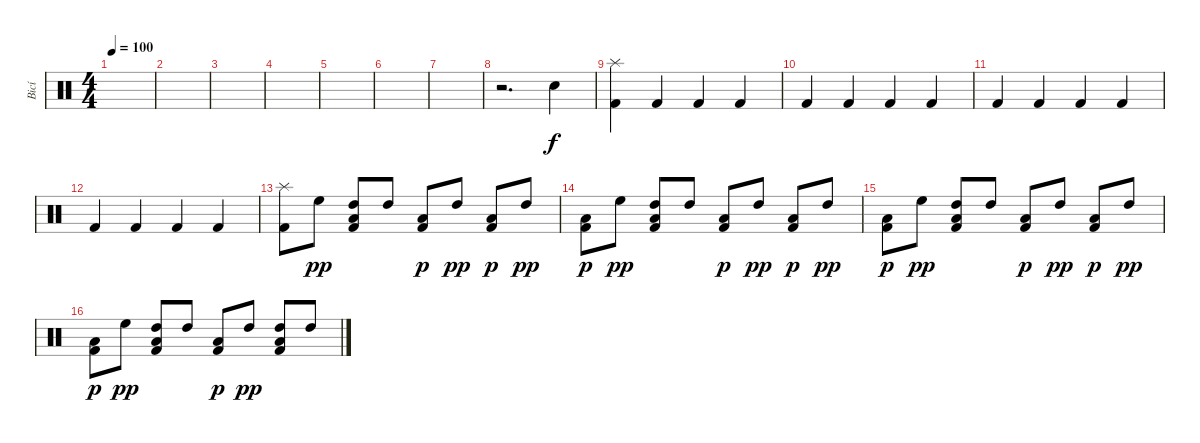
\track ("Bicí" "Bicí") {instrument percussion}
\staff {score}
\articulation defaults
\ts (4 4)
\tempo 100
\clef neutral
\ks c
|
|
|
|
|
|
|
r.2{d} "Snare (hit) 2".4 |
("Kick (hit) 2" "Splash (hit)").4 "Kick (hit) 2".4 "Kick (hit) 2".4 "Kick (hit) 2".4 |
"Kick (hit) 2".4 "Kick (hit) 2".4 "Kick (hit) 2".4 "Kick (hit) 2".4 |
"Kick (hit) 2".4 "Kick (hit) 2".4 "Kick (hit) 2".4 "Kick (hit) 2".4 |
"Kick (hit) 2".4 "Kick (hit) 2".4 "Kick (hit) 2".4 "Kick (hit) 2".4 |
("Kick (hit) 2" "Splash (hit)").8 "High Floor Tom (hit)".8{dy pp} ("Kick (hit) 2" "Low Floor Tom (hit)" "High Tom (hit)").8 "High Tom (hit)".8 ("Kick (hit) 2" "Low Floor Tom (hit)").8{dy p} "High Tom (hit)".8{dy pp} ("Kick (hit) 2" "Low Floor Tom (hit)").8{dy p} "High Tom (hit)".8{dy pp} |
("Kick (hit) 2" "Low Floor Tom (hit)").8{dy p} "High Floor Tom (hit)".8{dy pp} ("Kick (hit) 2" "Low Floor Tom (hit)" "High Tom (hit)").8 "High Tom (hit)".8 ("Kick (hit) 2" "Low Floor Tom (hit)").8{dy p} "High Tom (hit)".8{dy pp} ("Kick (hit) 2" "Low Floor Tom (hit)").8{dy p} "High Tom (hit)".8{dy pp} |
("Kick (hit) 2" "Low Floor Tom (hit)").8{dy p} "High Floor Tom (hit)".8{dy pp} ("Kick (hit) 2" "Low Floor Tom (hit)" "High Tom (hit)").8 "High Tom (hit)".8 ("Kick (hit) 2" "Low Floor Tom (hit)").8{dy p} "High Tom (hit)".8{dy pp} ("Kick (hit) 2" "Low Floor Tom (hit)").8{dy p} "High Tom (hit)".8{dy pp} |
("Kick (hit) 2" "Low Floor Tom (hit)").8{dy p} "High Floor Tom (hit)".8{dy pp} ("Kick (hit) 2" "Low Floor Tom (hit)" "High Tom (hit)").8 "High Tom (hit)".8 ("Kick (hit) 2" "Low Floor Tom (hit)").8{dy p} "High Tom (hit)".8{dy pp} ("Kick (hit) 2" "Low Floor Tom (hit)" "High Tom (hit)").8 "High Tom (hit)".8
